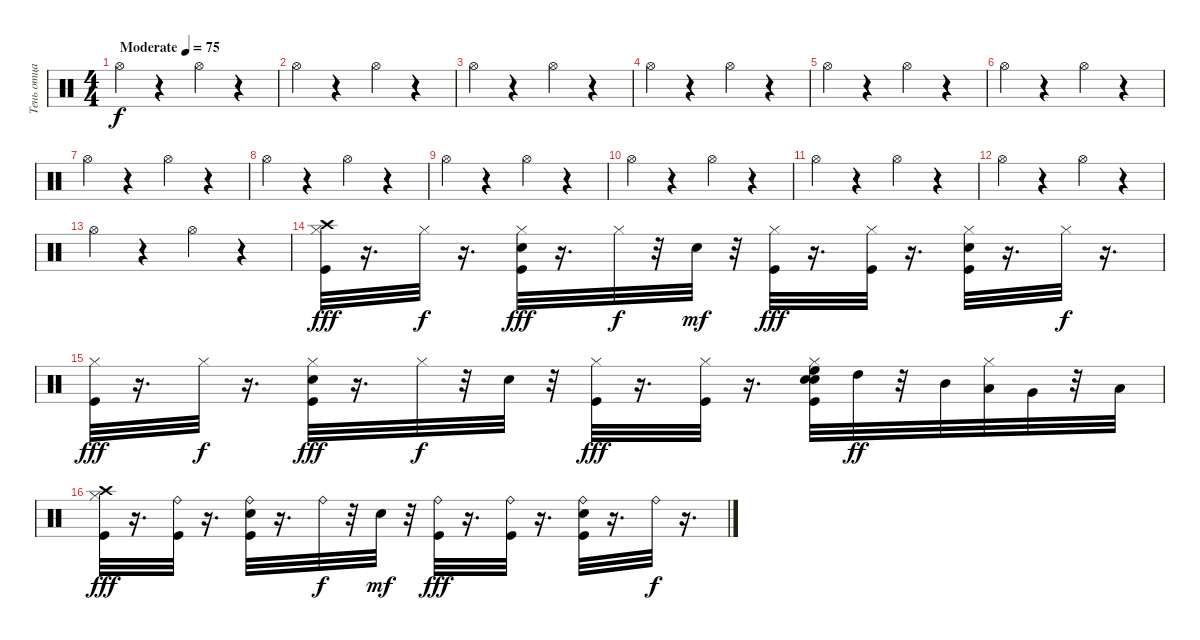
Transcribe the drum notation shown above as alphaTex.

\track ("Тень отца Гамлета" "Тень отца ") {instrument percussion}
\staff {score}
\articulation defaults
\ts (4 4)
\tempo (75 "Moderate")
\clef neutral
\ks c "Hi-Hat (open)".4{dy f}
r.4 "Hi-Hat (open)".4 r.4 |
"Hi-Hat (open)".4 r.4 "Hi-Hat (open)".4 r.4 |
"Hi-Hat (open)".4 r.4 "Hi-Hat (open)".4 r.4 |
"Hi-Hat (open)".4 r.4 "Hi-Hat (open)".4 r.4 |
"Hi-Hat (open)".4 r.4 "Hi-Hat (open)".4 r.4 |
"Hi-Hat (open)".4 r.4 "Hi-Hat (open)".4 r.4 |
"Hi-Hat (open)".4 r.4 "Hi-Hat (open)".4 r.4 |
"Hi-Hat (open)".4 r.4 "Hi-Hat (open)".4 r.4 |
"Hi-Hat (open)".4 r.4 "Hi-Hat (open)".4 r.4 |
"Hi-Hat (open)".4 r.4 "Hi-Hat (open)".4 r.4 |
"Hi-Hat (open)".4 r.4 "Hi-Hat (open)".4 r.4 |
"Hi-Hat (open)".4 r.4 "Hi-Hat (open)".4 r.4 |
"Hi-Hat (open)".4 r.4 "Hi-Hat (open)".4 r.4 |
("Hi-Hat (closed)" "Crash high (hit)" "Kick (hit)").32{dy fff} r.16{d} "Hi-Hat (closed)".32{dy f} r.16{d} ("Hi-Hat (closed)" "Snare (hit) 2" "Kick (hit)").32{dy fff} r.16{d} "Hi-Hat (closed)".32{dy f} r.32 "Snare (hit) 2".32{dy mf} r.32 ("Hi-Hat (closed)" "Kick (hit)").32{dy fff} r.16{d} ("Kick (hit)" "Hi-Hat (closed)").32 r.16{d} ("Hi-Hat (closed)" "Snare (hit) 2" "Kick (hit)").32 r.16{d} "Hi-Hat (closed)".32{dy f} r.16{d} |
("Kick (hit)" "Hi-Hat (closed)").32{dy fff} r.16{d} "Hi-Hat (closed)".32{dy f} r.16{d} ("Snare (hit) 2" "Kick (hit)" "Hi-Hat (closed)").32{dy fff} r.16{d} "Hi-Hat (closed)".32{dy f} r.32 "Snare (hit) 2".32 r.32 ("Kick (hit)" "Hi-Hat (closed)").32{dy fff} r.16{d} ("Kick (hit)" "Hi-Hat (closed)").32 r.16{d} ("Snare (hit) 2" "High Floor Tom (hit)" "Snare (hit) 2" "Kick (hit)" "Hi-Hat (closed)").32 "High Tom (hit)".32{dy ff} r.32 "Mid Tom (hit)".32 ("Low Tom (hit)" "Hi-Hat (closed)").32 "Very Low Tom (hit)".32 r.32 "Low Floor Tom (hit)".32 |
("Crash high (hit)" "Kick (hit)" "Hi-Hat (closed)").32{dy fff} r.16{d} ("Ride (bell)" "Kick (hit)").32 r.16{d} ("Ride (bell)" "Snare (hit) 2" "Kick (hit)").32 r.16{d} "Ride (bell)".32{dy f} r.32 "Snare (hit) 2".32{dy mf} r.32 ("Kick (hit)" "Ride (bell)").32{dy fff} r.16{d} ("Ride (bell)" "Kick (hit)").32 r.16{d} ("Snare (hit) 2" "Kick (hit)" "Ride (bell)").32 r.16{d} "Ride (bell)".32{dy f} r.16{d}
